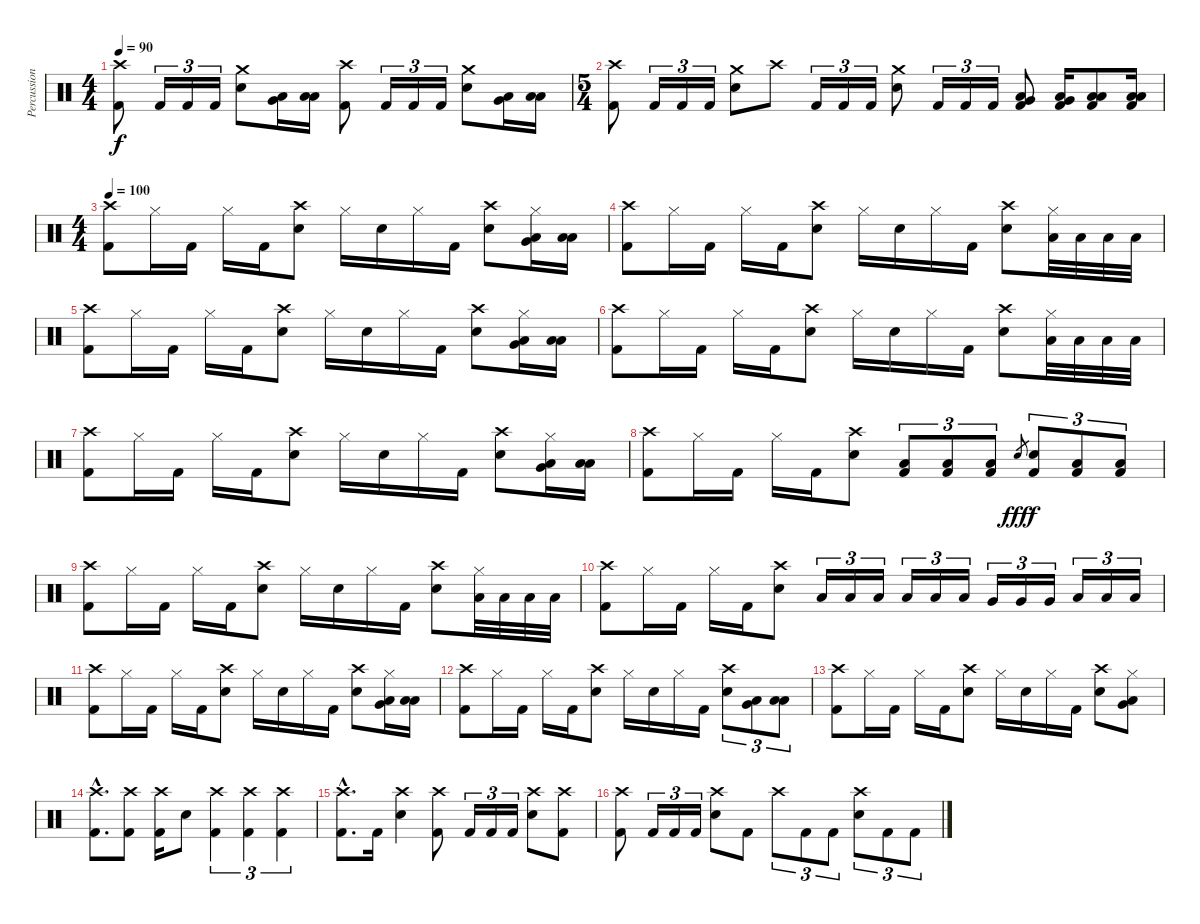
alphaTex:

\track ("Percussion" "Percussion") {instrument percussion}
\staff {score}
\articulation defaults
\ts (4 4)
\tempo 90
\clef neutral
\ks c
("Crash high (hit)" "Kick (hit) 2").8{dy f} "Kick (hit) 2".16{tu (3 2)} "Kick (hit) 2".16{tu (3 2)} "Kick (hit) 2".16{tu (3 2)} ("Crash medium (hit)" "Electric Snare (hit)").8 ("Low Tom (hit)" "Very Low Tom (hit)").16 ("Low Tom (hit)" "Low Floor Tom (hit)").16 ("Crash high (hit)" "Kick (hit) 2").8 "Kick (hit) 2".16{tu (3 2)} "Kick (hit) 2".16{tu (3 2)} "Kick (hit) 2".16{tu (3 2)} ("Crash medium (hit)" "Electric Snare (hit)").8 ("Low Tom (hit)" "Very Low Tom (hit)").16 ("Low Tom (hit)" "Low Floor Tom (hit)").16 |
\ts (5 4)
("Crash high (hit)" "Kick (hit) 2").8 "Kick (hit) 2".16{tu (3 2)} "Kick (hit) 2".16{tu (3 2)} "Kick (hit) 2".16{tu (3 2)} ("Crash medium (hit)" "Electric Snare (hit)").8 "Crash high (hit)".8 "Kick (hit) 2".16{tu (3 2)} "Kick (hit) 2".16{tu (3 2)} "Kick (hit) 2".16{tu (3 2)} ("Crash medium (hit)" "Electric Snare (hit)").8 "Kick (hit) 2".16{tu (3 2)} "Kick (hit) 2".16{tu (3 2)} "Kick (hit) 2".16{tu (3 2)} ("Low Tom (hit)" "Very Low Tom (hit)" "Kick (hit) 2").8 ("Low Tom (hit)" "Very Low Tom (hit)" "Kick (hit) 2").16 ("Low Tom (hit)" "Low Floor Tom (hit)" "Kick (hit) 2").8 ("Low Tom (hit)" "Low Floor Tom (hit)" "Kick (hit) 2").16 |
\ts (4 4)
\tempo 100
("Crash high (hit)" "Kick (hit) 2").8 "Hi-Hat (closed)".16 "Kick (hit) 2".16 "Hi-Hat (closed)".16 "Kick (hit) 2".16 ("Crash high (hit)" "Electric Snare (hit)").8 "Hi-Hat (closed)".16 "Electric Snare (hit)".16 "Hi-Hat (closed)".16 "Kick (hit) 2".16 ("Crash high (hit)" "Electric Snare (hit)").8 ("Hi-Hat (closed)" "Low Tom (hit)" "Very Low Tom (hit)").16 ("Low Tom (hit)" "Low Floor Tom (hit)").16 |
("Crash high (hit)" "Kick (hit) 2").8 "Hi-Hat (closed)".16 "Kick (hit) 2".16 "Hi-Hat (closed)".16 "Kick (hit) 2".16 ("Crash high (hit)" "Electric Snare (hit)").8 "Hi-Hat (closed)".16 "Electric Snare (hit)".16 "Hi-Hat (closed)".16 "Kick (hit) 2".16 ("Crash high (hit)" "Electric Snare (hit)").8 ("Hi-Hat (closed)" "Low Tom (hit)").32 "Low Tom (hit)".32 "Low Tom (hit)".32 "Low Tom (hit)".32 |
("Crash high (hit)" "Kick (hit) 2").8 "Hi-Hat (closed)".16 "Kick (hit) 2".16 "Hi-Hat (closed)".16 "Kick (hit) 2".16 ("Crash high (hit)" "Electric Snare (hit)").8 "Hi-Hat (closed)".16 "Electric Snare (hit)".16 "Hi-Hat (closed)".16 "Kick (hit) 2".16 ("Crash high (hit)" "Electric Snare (hit)").8 ("Hi-Hat (closed)" "Low Tom (hit)" "Very Low Tom (hit)").16 ("Low Tom (hit)" "Low Floor Tom (hit)").16 |
("Crash high (hit)" "Kick (hit) 2").8 "Hi-Hat (closed)".16 "Kick (hit) 2".16 "Hi-Hat (closed)".16 "Kick (hit) 2".16 ("Crash high (hit)" "Electric Snare (hit)").8 "Hi-Hat (closed)".16 "Electric Snare (hit)".16 "Hi-Hat (closed)".16 "Kick (hit) 2".16 ("Crash high (hit)" "Electric Snare (hit)").8 ("Hi-Hat (closed)" "Low Tom (hit)").32 "Low Tom (hit)".32 "Low Tom (hit)".32 "Low Tom (hit)".32 |
("Crash high (hit)" "Kick (hit) 2").8 "Hi-Hat (closed)".16 "Kick (hit) 2".16 "Hi-Hat (closed)".16 "Kick (hit) 2".16 ("Crash high (hit)" "Electric Snare (hit)").8 "Hi-Hat (closed)".16 "Electric Snare (hit)".16 "Hi-Hat (closed)".16 "Kick (hit) 2".16 ("Crash high (hit)" "Electric Snare (hit)").8 ("Hi-Hat (closed)" "Low Tom (hit)" "Very Low Tom (hit)").16 ("Low Tom (hit)" "Low Floor Tom (hit)").16 |
("Crash high (hit)" "Kick (hit) 2").8 "Hi-Hat (closed)".16 "Kick (hit) 2".16 "Hi-Hat (closed)".16 "Kick (hit) 2".16 ("Crash high (hit)" "Electric Snare (hit)").8 ("Low Tom (hit)" "Kick (hit) 2").8{tu (3 2)} ("Low Tom (hit)" "Kick (hit) 2").8{tu (3 2)} ("Low Tom (hit)" "Kick (hit) 2").8{tu (3 2)} "Electric Snare (hit)".8{gr dy fff} ("Electric Snare (hit)" "Kick (hit) 2").8{tu (3 2) dy f} ("Low Tom (hit)" "Kick (hit) 2").8{tu (3 2)} ("Low Tom (hit)" "Kick (hit) 2").8{tu (3 2)} |
("Crash high (hit)" "Kick (hit) 2").8 "Hi-Hat (closed)".16 "Kick (hit) 2".16 "Hi-Hat (closed)".16 "Kick (hit) 2".16 ("Crash high (hit)" "Electric Snare (hit)").8 "Hi-Hat (closed)".16 "Electric Snare (hit)".16 "Hi-Hat (closed)".16 "Kick (hit) 2".16 ("Crash high (hit)" "Electric Snare (hit)").8 ("Hi-Hat (closed)" "Low Tom (hit)").32 "Low Tom (hit)".32 "Low Tom (hit)".32 "Low Tom (hit)".32 |
("Crash high (hit)" "Kick (hit) 2").8 "Hi-Hat (closed)".16 "Kick (hit) 2".16 "Hi-Hat (closed)".16 "Kick (hit) 2".16 ("Crash high (hit)" "Electric Snare (hit)").8 "Low Tom (hit)".16{tu (3 2)} "Low Tom (hit)".16{tu (3 2)} "Low Tom (hit)".16{tu (3 2)} "Low Tom (hit)".16{tu (3 2)} "Low Tom (hit)".16{tu (3 2)} "Low Tom (hit)".16{tu (3 2)} "Very Low Tom (hit)".16{tu (3 2)} "Very Low Tom (hit)".16{tu (3 2)} "Very Low Tom (hit)".16{tu (3 2)} "Low Floor Tom (hit)".16{tu (3 2)} "Low Floor Tom (hit)".16{tu (3 2)} "Low Floor Tom (hit)".16{tu (3 2)} |
("Crash high (hit)" "Kick (hit) 2").8 "Hi-Hat (closed)".16 "Kick (hit) 2".16 "Hi-Hat (closed)".16 "Kick (hit) 2".16 ("Crash high (hit)" "Electric Snare (hit)").8 "Hi-Hat (closed)".16 "Electric Snare (hit)".16 "Hi-Hat (closed)".16 "Kick (hit) 2".16 ("Crash high (hit)" "Electric Snare (hit)").8 ("Hi-Hat (closed)" "Low Tom (hit)" "Very Low Tom (hit)").16 ("Low Tom (hit)" "Low Floor Tom (hit)").16 |
("Crash high (hit)" "Kick (hit) 2").8 "Hi-Hat (closed)".16 "Kick (hit) 2".16 "Hi-Hat (closed)".16 "Kick (hit) 2".16 ("Crash high (hit)" "Electric Snare (hit)").8 "Hi-Hat (closed)".16 "Electric Snare (hit)".16 "Hi-Hat (closed)".16 "Kick (hit) 2".16 ("Crash high (hit)" "Electric Snare (hit)").8{tu (3 2)} ("Low Tom (hit)" "Very Low Tom (hit)").8{tu (3 2)} ("Low Tom (hit)" "Low Floor Tom (hit)").8{tu (3 2)} |
("Crash high (hit)" "Kick (hit) 2").8 "Hi-Hat (closed)".16 "Kick (hit) 2".16 "Hi-Hat (closed)".16 "Kick (hit) 2".16 ("Crash high (hit)" "Electric Snare (hit)").8 "Hi-Hat (closed)".16 "Electric Snare (hit)".16 "Hi-Hat (closed)".16 "Kick (hit) 2".16 ("Crash high (hit)" "Electric Snare (hit)").8 ("Hi-Hat (closed)" "Low Tom (hit)" "Very Low Tom (hit)").8 |
("Crash high (hit)"{hac} "Kick (hit) 2"{hac}).8{d} ("Crash high (hit)" "Kick (hit) 2").8 ("Crash high (hit)" "Kick (hit) 2").16 "Electric Snare (hit)".8 ("Crash high (hit)" "Kick (hit) 2").4{tu (3 2)} ("Crash high (hit)" "Kick (hit) 2").4{tu (3 2)} ("Crash high (hit)" "Kick (hit) 2").4{tu (3 2)} |
("Crash high (hit)"{hac} "Kick (hit) 2"{hac}).8{d} "Kick (hit) 2".16 ("Crash high (hit)" "Electric Snare (hit)").4 ("Crash high (hit)" "Kick (hit) 2").8 "Kick (hit) 2".16{tu (3 2)} "Kick (hit) 2".16{tu (3 2)} "Kick (hit) 2".16{tu (3 2)} ("Crash high (hit)" "Electric Snare (hit)").8 ("Crash high (hit)" "Kick (hit) 2").8 |
("Crash high (hit)" "Kick (hit) 2").8 "Kick (hit) 2".16{tu (3 2)} "Kick (hit) 2".16{tu (3 2)} "Kick (hit) 2".16{tu (3 2)} ("Crash high (hit)" "Electric Snare (hit)").8 "Kick (hit) 2".8 "Crash high (hit)".8{tu (3 2)} "Kick (hit) 2".8{tu (3 2)} "Kick (hit) 2".8{tu (3 2)} ("Crash high (hit)" "Electric Snare (hit)").8{tu (3 2)} "Kick (hit) 2".8{tu (3 2)} "Kick (hit) 2".8{tu (3 2)}
